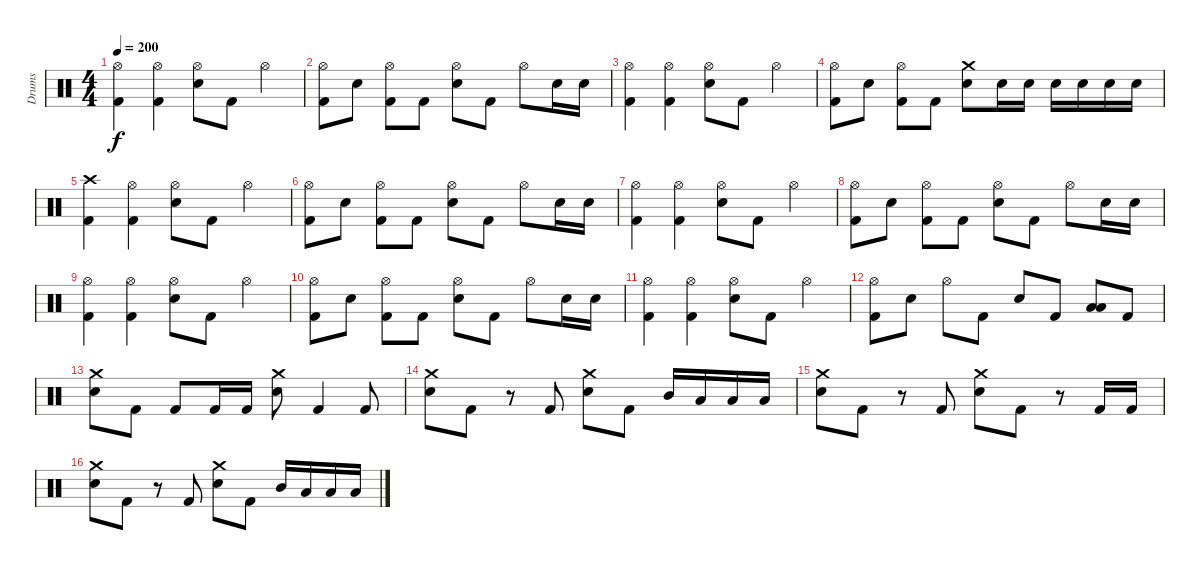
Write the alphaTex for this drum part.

\track ("Drums" "Drums") {instrument percussion}
\staff {score}
\articulation defaults
\ts (4 4)
\tempo 200
\clef neutral
\ks c
("Hi-Hat (open)" "Kick (hit) 2").4{dy f} ("Hi-Hat (open)" "Kick (hit) 2").4 ("Hi-Hat (open)" "Electric Snare (hit)").8 "Kick (hit) 2".8 "Hi-Hat (open)".4 |
("Hi-Hat (open)" "Kick (hit) 2").8 "Electric Snare (hit)".8 ("Hi-Hat (open)" "Kick (hit) 2").8 "Kick (hit) 2".8 ("Hi-Hat (open)" "Electric Snare (hit)").8 "Kick (hit) 2".8 "Hi-Hat (open)".8 "Electric Snare (hit)".16 "Electric Snare (hit)".16 |
("Hi-Hat (open)" "Kick (hit) 2").4 ("Hi-Hat (open)" "Kick (hit) 2").4 ("Hi-Hat (open)" "Electric Snare (hit)").8 "Kick (hit) 2".8 "Hi-Hat (open)".4 |
("Hi-Hat (open)" "Kick (hit) 2").8 "Electric Snare (hit)".8 ("Hi-Hat (open)" "Kick (hit) 2").8 "Kick (hit) 2".8 ("Crash medium (hit)" "Electric Snare (hit)").8 "Electric Snare (hit)".16 "Electric Snare (hit)".16 "Electric Snare (hit)".16 "Electric Snare (hit)".16 "Electric Snare (hit)".16 "Electric Snare (hit)".16 |
("Crash high (hit)" "Kick (hit) 2").4 ("Hi-Hat (open)" "Kick (hit) 2").4 ("Hi-Hat (open)" "Electric Snare (hit)").8 "Kick (hit) 2".8 "Hi-Hat (open)".4 |
("Hi-Hat (open)" "Kick (hit) 2").8 "Electric Snare (hit)".8 ("Hi-Hat (open)" "Kick (hit) 2").8 "Kick (hit) 2".8 ("Hi-Hat (open)" "Electric Snare (hit)").8 "Kick (hit) 2".8 "Hi-Hat (open)".8 "Electric Snare (hit)".16 "Electric Snare (hit)".16 |
("Hi-Hat (open)" "Kick (hit) 2").4 ("Hi-Hat (open)" "Kick (hit) 2").4 ("Hi-Hat (open)" "Electric Snare (hit)").8 "Kick (hit) 2".8 "Hi-Hat (open)".4 |
("Hi-Hat (open)" "Kick (hit) 2").8 "Electric Snare (hit)".8 ("Hi-Hat (open)" "Kick (hit) 2").8 "Kick (hit) 2".8 ("Hi-Hat (open)" "Electric Snare (hit)").8 "Kick (hit) 2".8 "Hi-Hat (open)".8 "Electric Snare (hit)".16 "Electric Snare (hit)".16 |
("Hi-Hat (open)" "Kick (hit) 2").4 ("Hi-Hat (open)" "Kick (hit) 2").4 ("Hi-Hat (open)" "Electric Snare (hit)").8 "Kick (hit) 2".8 "Hi-Hat (open)".4 |
("Hi-Hat (open)" "Kick (hit) 2").8 "Electric Snare (hit)".8 ("Hi-Hat (open)" "Kick (hit) 2").8 "Kick (hit) 2".8 ("Hi-Hat (open)" "Electric Snare (hit)").8 "Kick (hit) 2".8 "Hi-Hat (open)".8 "Electric Snare (hit)".16 "Electric Snare (hit)".16 |
("Hi-Hat (open)" "Kick (hit) 2").4 ("Hi-Hat (open)" "Kick (hit) 2").4 ("Hi-Hat (open)" "Electric Snare (hit)").8 "Kick (hit) 2".8 "Hi-Hat (open)".4 |
("Hi-Hat (open)" "Kick (hit) 2").8 "Electric Snare (hit)".8 "Hi-Hat (open)".8 "Kick (hit) 2".8 "Electric Snare (hit)".8 "Kick (hit) 2".8 ("Low Tom (hit)" "Low Floor Tom (hit)").8 "Kick (hit) 2".8 |
("Crash medium (hit)" "Electric Snare (hit)").8 "Kick (hit) 2".8 "Kick (hit) 2".8 "Kick (hit) 2".16 "Kick (hit) 2".16 ("Crash medium (hit)" "Electric Snare (hit)").8 "Kick (hit) 2".4 "Kick (hit) 2".8 |
("Crash medium (hit)" "Electric Snare (hit)").8 "Kick (hit) 2".8 r.8 "Kick (hit) 2".8 ("Crash medium (hit)" "Electric Snare (hit)").8 "Kick (hit) 2".8 "Mid Tom (hit)".16 "Low Tom (hit)".16 "Low Floor Tom (hit)".16 "Low Floor Tom (hit)".16 |
("Crash medium (hit)" "Electric Snare (hit)").8 "Kick (hit) 2".8 r.8 "Kick (hit) 2".8 ("Crash medium (hit)" "Electric Snare (hit)").8 "Kick (hit) 2".8 r.8 "Kick (hit) 2".16 "Kick (hit) 2".16 |
("Crash medium (hit)" "Electric Snare (hit)").8 "Kick (hit) 2".8 r.8 "Kick (hit) 2".8 ("Crash medium (hit)" "Electric Snare (hit)").8 "Kick (hit) 2".8 "Mid Tom (hit)".16 "Low Tom (hit)".16 "Low Floor Tom (hit)".16 "Low Floor Tom (hit)".16
